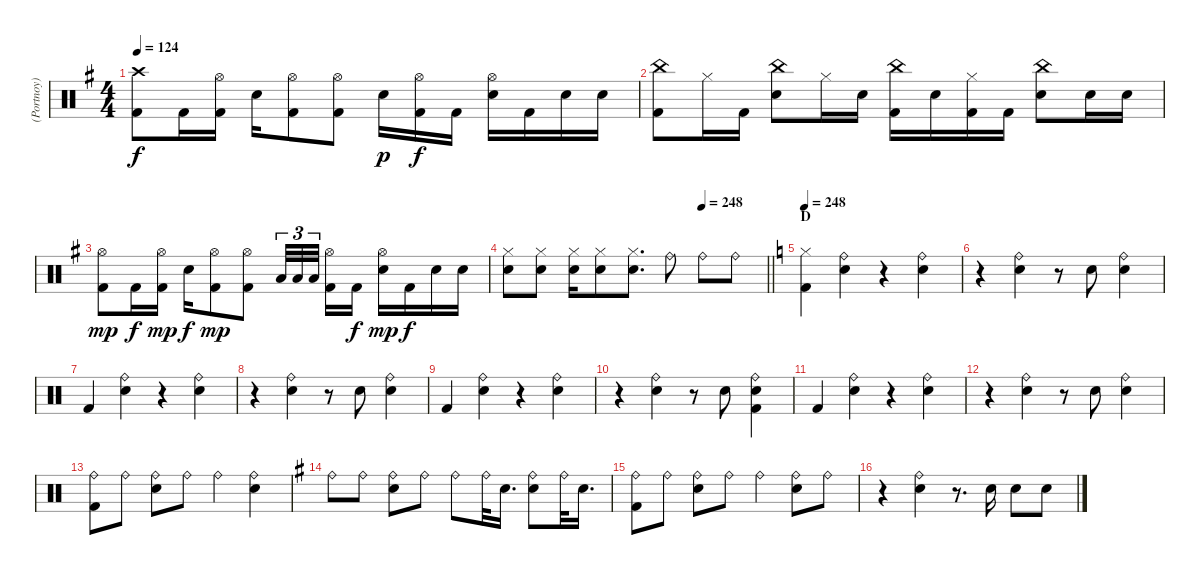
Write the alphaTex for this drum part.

\track ("(Portnoy) Drums" "(Portnoy) ") {instrument percussion}
\staff {score}
\articulation defaults
\ts (4 4)
\tempo 124
\clef neutral
\ks eminor
("Crash high (hit)" "Kick (hit) 2").8{dy f} "Kick (hit) 2".16 ("Hi-Hat (open)" "Kick (hit) 2").16 "Snare (hit) 2".16 ("Hi-Hat (open)" "Kick (hit) 2").8 ("Hi-Hat (open)" "Kick (hit) 2").8 "Snare (hit) 2".16{dy p} ("Hi-Hat (open)" "Kick (hit) 2").16{dy f} "Kick (hit) 2".16 ("Hi-Hat (open)" "Snare (hit) 2").16 "Kick (hit) 2".16 "Snare (hit) 2".16 "Snare (hit) 2".16 |
("China (hit)" "Kick (hit) 2").8 "Hi-Hat (closed)".16 "Kick (hit) 2".16 ("China (hit)" "Snare (hit) 2").8 "Hi-Hat (closed)".16 "Snare (hit) 2".16 ("China (hit)" "Kick (hit) 2").16 "Snare (hit) 2".16 ("Hi-Hat (closed)" "Kick (hit) 2").16 "Kick (hit) 2".16 ("China (hit)" "Snare (hit) 2").8 "Snare (hit) 2".16 "Snare (hit) 2".16 |
("Hi-Hat (open)" "Kick (hit) 2").8{dy mp} "Kick (hit) 2".16{dy f} ("Hi-Hat (open)" "Kick (hit) 2").16{dy mp} "Snare (hit) 2".16{dy f} ("Hi-Hat (open)" "Kick (hit) 2").8{dy mp} ("Hi-Hat (open)" "Kick (hit) 2").8 "Low Floor Tom (hit)".32{tu (3 2)} "Low Floor Tom (hit)".32{tu (3 2)} "Low Floor Tom (hit)".32{tu (3 2) beam splitsecondary} ("Hi-Hat (open)" "Kick (hit) 2").16 "Kick (hit) 2".16{dy f} ("Hi-Hat (open)" "Snare (hit) 2").16{dy mp} "Kick (hit) 2".16{dy f} "Snare (hit) 2".16 "Snare (hit) 2".16 |
\tempo (248 0.75)
\barLineRight lightlight
("Hi-Hat (closed)" "Snare (hit) 2").8 ("Hi-Hat (closed)" "Snare (hit) 2").8 ("Hi-Hat (closed)" "Snare (hit) 2").16 ("Hi-Hat (closed)" "Snare (hit) 2").8 ("Hi-Hat (closed)" "Snare (hit) 2").8{d} "Ride (bell)".8 "Ride (bell)".8 "Ride (bell)".8 |
\section ("" "D")
\tempo 248
\ks c
("Hi-Hat (closed)" "Kick (hit) 2").4 ("Ride (bell)" "Snare (hit) 2").4 r.4 ("Ride (bell)" "Snare (hit) 2").4 |
r.4 ("Ride (bell)" "Snare (hit) 2").4 r.8 "Snare (hit) 2".8 ("Ride (bell)" "Snare (hit) 2").4 |
"Kick (hit) 2".4 ("Ride (bell)" "Snare (hit) 2").4 r.4 ("Ride (bell)" "Snare (hit) 2").4 |
r.4 ("Ride (bell)" "Snare (hit) 2").4 r.8 "Snare (hit) 2".8 ("Ride (bell)" "Snare (hit) 2").4 |
"Kick (hit) 2".4 ("Ride (bell)" "Snare (hit) 2").4 r.4 ("Ride (bell)" "Snare (hit) 2").4 |
r.4 ("Ride (bell)" "Snare (hit) 2").4 r.8 "Snare (hit) 2".8 ("Ride (bell)" "Snare (hit) 2" "Kick (hit) 2").4 |
"Kick (hit) 2".4 ("Ride (bell)" "Snare (hit) 2").4 r.4 ("Ride (bell)" "Snare (hit) 2").4 |
r.4 ("Ride (bell)" "Snare (hit) 2").4 r.8 "Snare (hit) 2".8 ("Ride (bell)" "Snare (hit) 2").4 |
("Ride (bell)" "Kick (hit) 2").8 "Ride (bell)".8 ("Ride (bell)" "Snare (hit) 2").8 "Ride (bell)".8 "Ride (bell)".4 ("Ride (bell)" "Snare (hit) 2").4 |
\ks eminor "Ride (bell)".8 "Ride (bell)".8
("Ride (bell)" "Snare (hit) 2").8 "Ride (bell)".8 "Ride (bell)".8 "Ride (bell)".32 "Snare (hit) 2".16{d} ("Ride (bell)" "Snare (hit) 2").8 "Ride (bell)".32 "Snare (hit) 2".16{d} |
("Ride (bell)" "Kick (hit) 2").8 "Ride (bell)".8 ("Ride (bell)" "Snare (hit) 2").8 "Ride (bell)".8 "Ride (bell)".4 ("Ride (bell)" "Snare (hit) 2").8 "Ride (bell)".8 |
r.4 ("Ride (bell)" "Snare (hit) 2").4 r.8{d} "Snare (hit) 2".16 "Snare (hit) 2".8 "Snare (hit) 2".8
